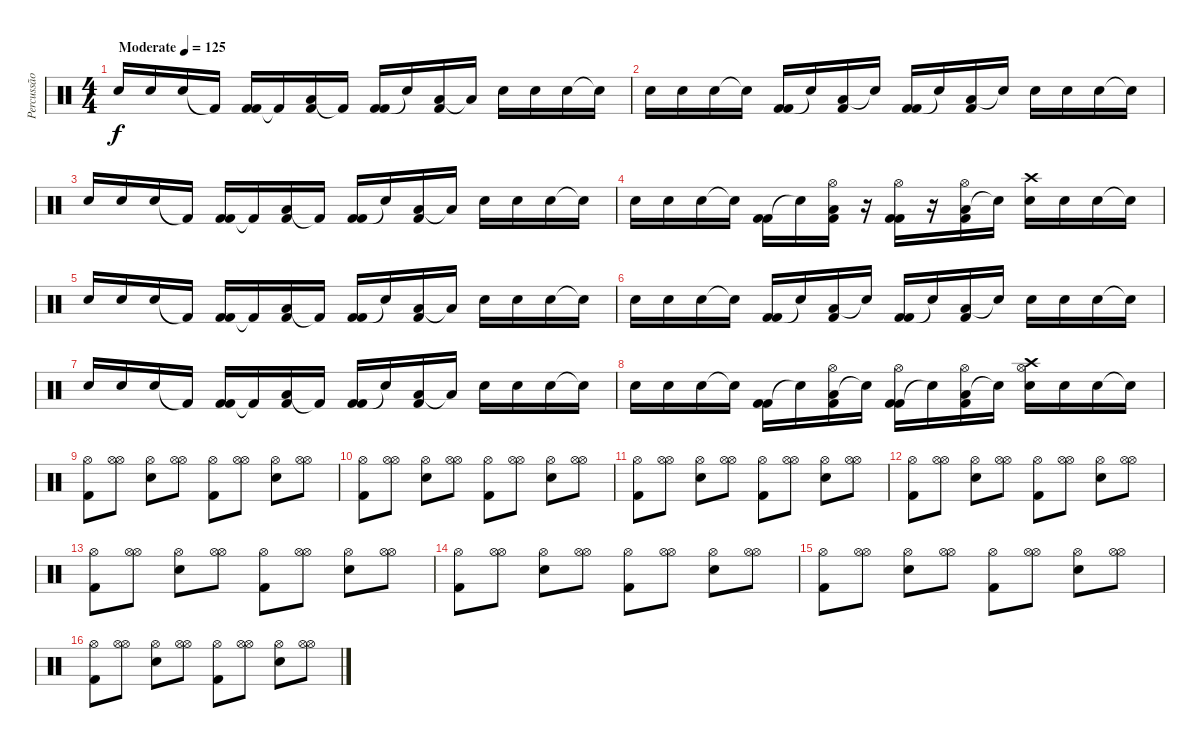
\track ("Percussão" "Percussão") {instrument percussion}
\staff {score}
\articulation defaults
\ts (4 4)
\tempo (125 "Moderate")
\clef neutral
\ks c "Electric Snare (hit)".16{dy f} "Electric Snare (hit)".16 "Electric Snare (hit)".16 "Kick (hit) 2"{t}.16
("Kick (hit) 2" "Kick (hit) 2").16 "Kick (hit) 2"{t}.16 ("Low Floor Tom (hit)" "Kick (hit) 2").16 "Kick (hit) 2"{t}.16 ("Kick (hit) 2" "Kick (hit) 2").16 "Snare (hit)"{t}.16 ("Low Floor Tom (hit)" "Kick (hit) 2").16 "Low Floor Tom (hit)"{t}.16 "Electric Snare (hit)".16 "Electric Snare (hit)".16 "Electric Snare (hit)".16 "Snare (hit)"{t}.16 |
"Electric Snare (hit)".16 "Electric Snare (hit)".16 "Electric Snare (hit)".16 "Snare (hit)"{t}.16 ("Kick (hit) 2" "Kick (hit) 2").16 "Snare (hit)"{t}.16 ("Low Floor Tom (hit)" "Kick (hit) 2").16 "Snare (hit)"{t}.16 ("Kick (hit) 2" "Kick (hit) 2").16 "Snare (hit)"{t}.16 ("Low Floor Tom (hit)" "Kick (hit) 2").16 "Snare (hit)"{t}.16 "Electric Snare (hit)".16 "Electric Snare (hit)".16 "Electric Snare (hit)".16 "Snare (hit)"{t}.16 |
"Electric Snare (hit)".16 "Electric Snare (hit)".16 "Electric Snare (hit)".16 "Kick (hit) 2"{t}.16 ("Kick (hit) 2" "Kick (hit) 2").16 "Kick (hit) 2"{t}.16 ("Low Floor Tom (hit)" "Kick (hit) 2").16 "Kick (hit) 2"{t}.16 ("Kick (hit) 2" "Kick (hit) 2").16 "Snare (hit)"{t}.16 ("Low Floor Tom (hit)" "Kick (hit) 2").16 "Low Floor Tom (hit)"{t}.16 "Electric Snare (hit)".16 "Electric Snare (hit)".16 "Electric Snare (hit)".16 "Snare (hit)"{t}.16 |
"Electric Snare (hit)".16 "Electric Snare (hit)".16 "Electric Snare (hit)".16 "Snare (hit)"{t}.16 ("Kick (hit) 2" "Kick (hit) 2").16 "Snare (hit)"{t}.16 ("Low Floor Tom (hit)" "Kick (hit) 2" "Hi-Hat (open)").16 r.16 ("Kick (hit) 2" "Kick (hit) 2" "Hi-Hat (open)").16 r.16 ("Low Floor Tom (hit)" "Kick (hit) 2" "Hi-Hat (open)").16 "Snare (hit)"{t}.16 ("Electric Snare (hit)" "Crash high (hit)").16 "Electric Snare (hit)".16 "Electric Snare (hit)".16 "Snare (hit)"{t}.16 |
"Electric Snare (hit)".16 "Electric Snare (hit)".16 "Electric Snare (hit)".16 "Kick (hit) 2"{t}.16 ("Kick (hit) 2" "Kick (hit) 2").16 "Kick (hit) 2"{t}.16 ("Low Floor Tom (hit)" "Kick (hit) 2").16 "Kick (hit) 2"{t}.16 ("Kick (hit) 2" "Kick (hit) 2").16 "Snare (hit)"{t}.16 ("Low Floor Tom (hit)" "Kick (hit) 2").16 "Low Floor Tom (hit)"{t}.16 "Electric Snare (hit)".16 "Electric Snare (hit)".16 "Electric Snare (hit)".16 "Snare (hit)"{t}.16 |
"Electric Snare (hit)".16 "Electric Snare (hit)".16 "Electric Snare (hit)".16 "Snare (hit)"{t}.16 ("Kick (hit) 2" "Kick (hit) 2").16 "Snare (hit)"{t}.16 ("Low Floor Tom (hit)" "Kick (hit) 2").16 "Snare (hit)"{t}.16 ("Kick (hit) 2" "Kick (hit) 2").16 "Snare (hit)"{t}.16 ("Low Floor Tom (hit)" "Kick (hit) 2").16 "Snare (hit)"{t}.16 "Electric Snare (hit)".16 "Electric Snare (hit)".16 "Electric Snare (hit)".16 "Snare (hit)"{t}.16 |
"Electric Snare (hit)".16 "Electric Snare (hit)".16 "Electric Snare (hit)".16 "Kick (hit) 2"{t}.16 ("Kick (hit) 2" "Kick (hit) 2").16 "Kick (hit) 2"{t}.16 ("Low Floor Tom (hit)" "Kick (hit) 2").16 "Kick (hit) 2"{t}.16 ("Kick (hit) 2" "Kick (hit) 2").16 "Snare (hit)"{t}.16 ("Low Floor Tom (hit)" "Kick (hit) 2").16 "Low Floor Tom (hit)"{t}.16 "Electric Snare (hit)".16 "Electric Snare (hit)".16 "Electric Snare (hit)".16 "Snare (hit)"{t}.16 |
"Electric Snare (hit)".16 "Electric Snare (hit)".16 "Electric Snare (hit)".16 "Snare (hit)"{t}.16 ("Kick (hit) 2" "Kick (hit) 2").16 "Snare (hit)"{t}.16 ("Low Floor Tom (hit)" "Kick (hit) 2" "Hi-Hat (open)").16 "Snare (hit)"{t}.16 ("Kick (hit) 2" "Kick (hit) 2" "Hi-Hat (open)").16 "Snare (hit)"{t}.16 ("Low Floor Tom (hit)" "Kick (hit) 2" "Hi-Hat (open)").16 "Snare (hit)"{t}.16 ("Electric Snare (hit)" "Crash high (hit)" "Hi-Hat (open)").16 "Electric Snare (hit)".16 "Electric Snare (hit)".16 "Snare (hit)"{t}.16 |
("Kick (hit) 2" "Hi-Hat (open)").8 ("Hi-Hat (open)" "Hi-Hat (open)").8 ("Electric Snare (hit)" "Hi-Hat (open)").8 ("Hi-Hat (open)" "Hi-Hat (open)").8 ("Kick (hit) 2" "Hi-Hat (open)").8 ("Hi-Hat (open)" "Hi-Hat (open)").8 ("Electric Snare (hit)" "Hi-Hat (open)").8 ("Hi-Hat (open)" "Hi-Hat (open)").8 |
("Kick (hit) 2" "Hi-Hat (open)").8 ("Hi-Hat (open)" "Hi-Hat (open)").8 ("Electric Snare (hit)" "Hi-Hat (open)").8 ("Hi-Hat (open)" "Hi-Hat (open)").8 ("Kick (hit) 2" "Hi-Hat (open)").8 ("Hi-Hat (open)" "Hi-Hat (open)").8 ("Electric Snare (hit)" "Hi-Hat (open)").8 ("Hi-Hat (open)" "Hi-Hat (open)").8 |
("Kick (hit) 2" "Hi-Hat (open)").8 ("Hi-Hat (open)" "Hi-Hat (open)").8 ("Electric Snare (hit)" "Hi-Hat (open)").8 ("Hi-Hat (open)" "Hi-Hat (open)").8 ("Kick (hit) 2" "Hi-Hat (open)").8 ("Hi-Hat (open)" "Hi-Hat (open)").8 ("Electric Snare (hit)" "Hi-Hat (open)").8 ("Hi-Hat (open)" "Hi-Hat (open)").8 |
("Kick (hit) 2" "Hi-Hat (open)").8 ("Hi-Hat (open)" "Hi-Hat (open)").8 ("Electric Snare (hit)" "Hi-Hat (open)").8 ("Hi-Hat (open)" "Hi-Hat (open)").8 ("Kick (hit) 2" "Hi-Hat (open)").8 ("Hi-Hat (open)" "Hi-Hat (open)").8 ("Electric Snare (hit)" "Hi-Hat (open)").8 ("Hi-Hat (open)" "Hi-Hat (open)").8 |
("Kick (hit) 2" "Hi-Hat (open)").8 ("Hi-Hat (open)" "Hi-Hat (open)").8 ("Electric Snare (hit)" "Hi-Hat (open)").8 ("Hi-Hat (open)" "Hi-Hat (open)").8 ("Kick (hit) 2" "Hi-Hat (open)").8 ("Hi-Hat (open)" "Hi-Hat (open)").8 ("Electric Snare (hit)" "Hi-Hat (open)").8 ("Hi-Hat (open)" "Hi-Hat (open)").8 |
("Kick (hit) 2" "Hi-Hat (open)").8 ("Hi-Hat (open)" "Hi-Hat (open)").8 ("Electric Snare (hit)" "Hi-Hat (open)").8 ("Hi-Hat (open)" "Hi-Hat (open)").8 ("Kick (hit) 2" "Hi-Hat (open)").8 ("Hi-Hat (open)" "Hi-Hat (open)").8 ("Electric Snare (hit)" "Hi-Hat (open)").8 ("Hi-Hat (open)" "Hi-Hat (open)").8 |
("Kick (hit) 2" "Hi-Hat (open)").8 ("Hi-Hat (open)" "Hi-Hat (open)").8 ("Electric Snare (hit)" "Hi-Hat (open)").8 ("Hi-Hat (open)" "Hi-Hat (open)").8 ("Kick (hit) 2" "Hi-Hat (open)").8 ("Hi-Hat (open)" "Hi-Hat (open)").8 ("Electric Snare (hit)" "Hi-Hat (open)").8 ("Hi-Hat (open)" "Hi-Hat (open)").8 |
("Kick (hit) 2" "Hi-Hat (open)").8 ("Hi-Hat (open)" "Hi-Hat (open)").8 ("Electric Snare (hit)" "Hi-Hat (open)").8 ("Hi-Hat (open)" "Hi-Hat (open)").8 ("Kick (hit) 2" "Hi-Hat (open)").8 ("Hi-Hat (open)" "Hi-Hat (open)").8 ("Electric Snare (hit)" "Hi-Hat (open)").8 ("Hi-Hat (open)" "Hi-Hat (open)").8
